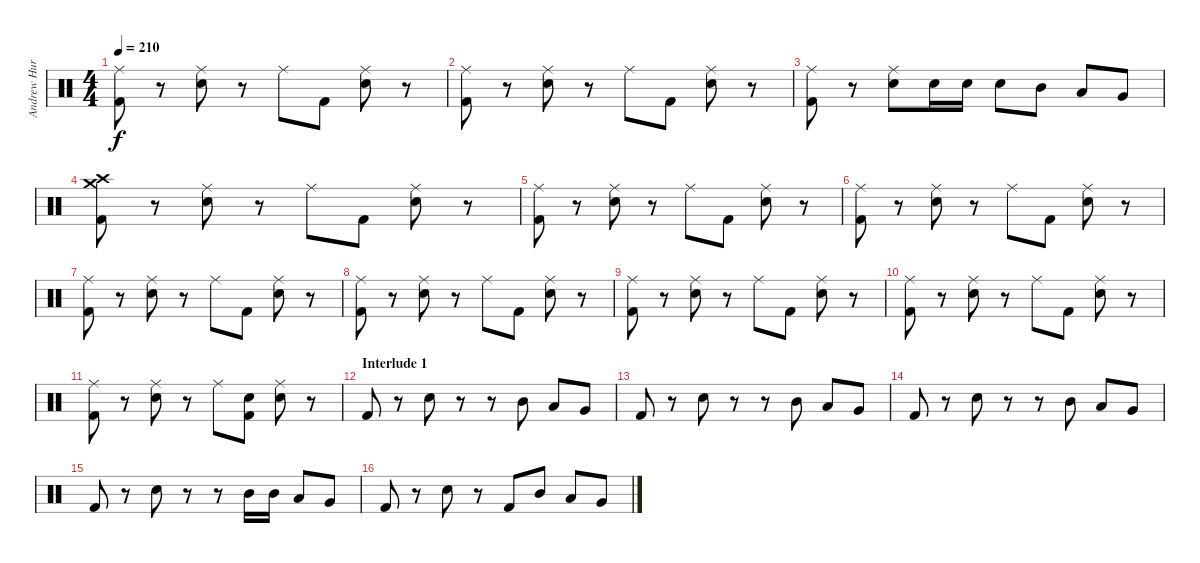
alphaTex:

\track ("Andrew Hurley (Drums)" "Andrew Hur") {instrument percussion}
\staff {score}
\articulation defaults
\ts (4 4)
\tempo 210
\clef neutral
\ks c
("Ride (middle)" "Kick (hit) 2").8{dy f} r.8 ("Ride (middle)" "Electric Snare (hit)").8 r.8 "Ride (middle)".8 "Kick (hit) 2".8 ("Ride (middle)" "Electric Snare (hit)").8 r.8 |
("Ride (middle)" "Kick (hit) 2").8 r.8 ("Ride (middle)" "Electric Snare (hit)").8 r.8 "Ride (middle)".8 "Kick (hit) 2".8 ("Ride (middle)" "Electric Snare (hit)").8 r.8 |
("Ride (middle)" "Kick (hit) 2").8 r.8 ("Ride (middle)" "Electric Snare (hit)").8 "Electric Snare (hit)".16 "Electric Snare (hit)".16 "Electric Snare (hit)".8 "Mid Tom (hit)".8 "Low Tom (hit)".8 "Very Low Tom (hit)".8 |
("Crash medium (hit)" "Crash high (hit)" "Kick (hit) 2").8 r.8 ("Ride (middle)" "Electric Snare (hit)").8 r.8 "Ride (middle)".8 "Kick (hit) 2".8 ("Ride (middle)" "Electric Snare (hit)").8 r.8 |
("Ride (middle)" "Kick (hit) 2").8 r.8 ("Ride (middle)" "Electric Snare (hit)").8 r.8 "Ride (middle)".8 "Kick (hit) 2".8 ("Ride (middle)" "Electric Snare (hit)").8 r.8 |
("Ride (middle)" "Kick (hit) 2").8 r.8 ("Ride (middle)" "Electric Snare (hit)").8 r.8 "Ride (middle)".8 "Kick (hit) 2".8 ("Ride (middle)" "Electric Snare (hit)").8 r.8 |
("Ride (middle)" "Kick (hit) 2").8 r.8 ("Ride (middle)" "Electric Snare (hit)").8 r.8 "Ride (middle)".8 "Kick (hit) 2".8 ("Ride (middle)" "Electric Snare (hit)").8 r.8 |
("Ride (middle)" "Kick (hit) 2").8 r.8 ("Ride (middle)" "Electric Snare (hit)").8 r.8 "Ride (middle)".8 "Kick (hit) 2".8 ("Ride (middle)" "Electric Snare (hit)").8 r.8 |
("Ride (middle)" "Kick (hit) 2").8 r.8 ("Ride (middle)" "Electric Snare (hit)").8 r.8 "Ride (middle)".8 "Kick (hit) 2".8 ("Ride (middle)" "Electric Snare (hit)").8 r.8 |
("Ride (middle)" "Kick (hit) 2").8 r.8 ("Ride (middle)" "Electric Snare (hit)").8 r.8 "Ride (middle)".8 "Kick (hit) 2".8 ("Ride (middle)" "Electric Snare (hit)").8 r.8 |
("Ride (middle)" "Kick (hit) 2").8 r.8 ("Ride (middle)" "Electric Snare (hit)").8 r.8 "Ride (middle)".8 ("Electric Snare (hit)" "Kick (hit) 2").8 ("Ride (middle)" "Electric Snare (hit)").8 r.8 |
\section ("" "Interlude 1")
"Kick (hit) 2".8 r.8 "Electric Snare (hit)".8 r.8 r.8 "Mid Tom (hit)".8 "Low Tom (hit)".8 "Very Low Tom (hit)".8 |
"Kick (hit) 2".8 r.8 "Electric Snare (hit)".8 r.8 r.8 "Mid Tom (hit)".8 "Low Tom (hit)".8 "Very Low Tom (hit)".8 |
"Kick (hit) 2".8 r.8 "Electric Snare (hit)".8 r.8 r.8 "Mid Tom (hit)".8 "Low Tom (hit)".8 "Very Low Tom (hit)".8 |
"Kick (hit) 2".8 r.8 "Electric Snare (hit)".8 r.8 r.8 "Mid Tom (hit)".16 "Mid Tom (hit)".16 "Low Tom (hit)".8 "Very Low Tom (hit)".8 |
"Kick (hit) 2".8 r.8 "Electric Snare (hit)".8 r.8 "Kick (hit) 2".8 "Mid Tom (hit)".8 "Low Tom (hit)".8 "Very Low Tom (hit)".8
